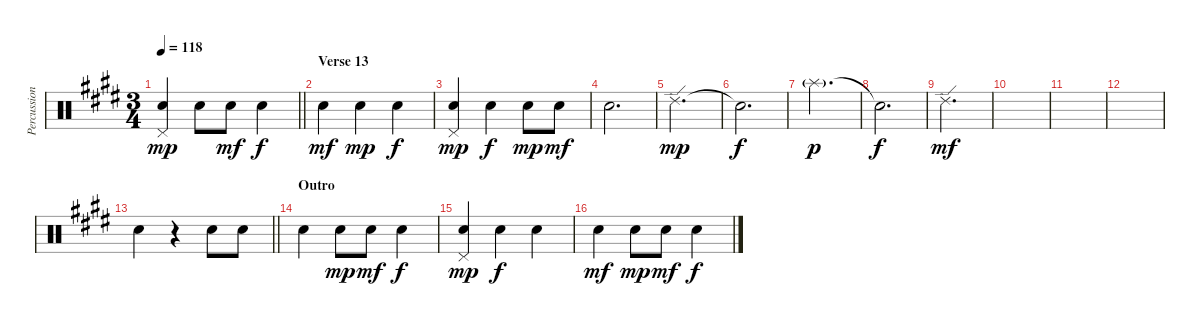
\track ("Percussion" "Percussion") {instrument percussion}
\staff {score}
\articulation defaults
\ts (3 4)
\tempo 118
\clef neutral
\barLineRight lightlight
\ks e
("Hand Clap (hit)" "Pedal Hi-Hat (hit)").4{dy mp} "Snare (hit) 2".8 "Snare (hit) 2".8{dy mf} "Hand Clap (hit)".4{dy f} |
\section ("" "Verse 13")
"Snare (hit) 2".4{dy mf} "Snare (hit) 2".4{dy mp} "Snare (hit) 2".4{dy f} |
("Hand Clap (hit)" "Pedal Hi-Hat (hit)").4{dy mp} "Snare (hit) 2".4{dy f} "Snare (hit) 2".8{dy mp} "Snare (hit) 2".8{dy mf} |
"Snare (hit) 2".2{d} |
"Ride (edge) 2".2{d dy mp} |
"Snare (hit)"{t}.2{d dy f} |
"Splash (hit)"{g}.2{d dy p} |
"Snare (hit)"{t}.2{d dy f} |
"Ride (edge) 2".2{d dy mf} |
|
|
|
\barLineRight lightlight "Snare (hit) 2".4
r.4 "Snare (hit) 2".8 "Hand Clap (hit)".8 |
\section ("" "Outro")
"Snare (hit) 2".4 "Snare (hit) 2".8{dy mp} "Snare (hit) 2".8{dy mf} "Snare (hit) 2".4{dy f} |
("Hand Clap (hit)" "Pedal Hi-Hat (hit)").4{dy mp} "Snare (hit) 2".4{dy f} "Snare (hit) 2".4 |
"Snare (hit) 2".4{dy mf} "Snare (hit) 2".8{dy mp} "Snare (hit) 2".8{dy mf} "Snare (hit) 2".4{dy f}
